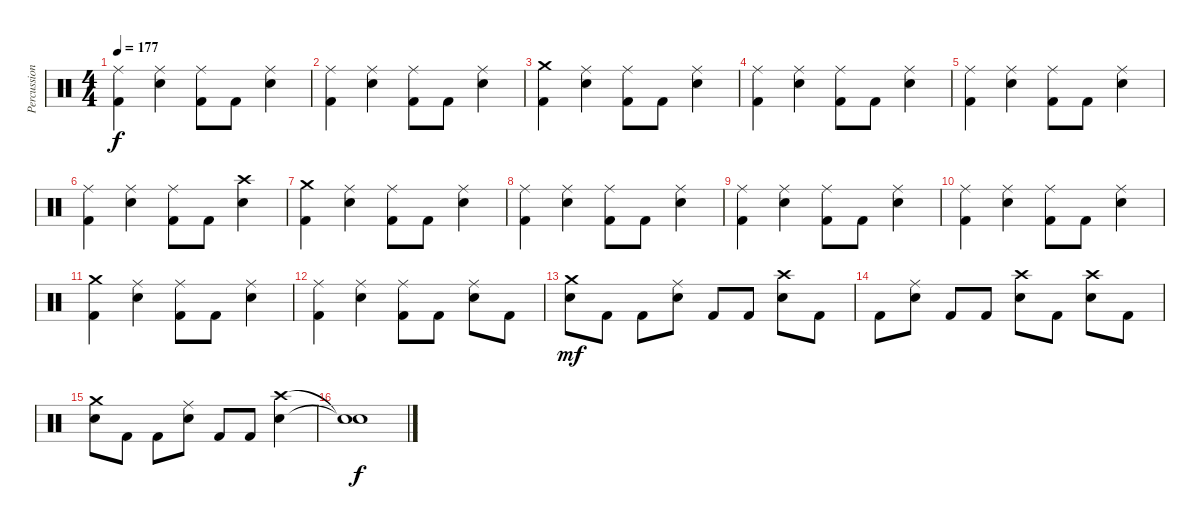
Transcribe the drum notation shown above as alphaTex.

\track ("Percussion" "Percussion") {instrument percussion}
\staff {score}
\articulation defaults
\ts (4 4)
\tempo 177
\clef neutral
\ks c
("Ride (middle)" "Kick (hit) 2").4{dy f} ("Ride (middle)" "Electric Snare (hit)").4 ("Ride (middle)" "Kick (hit) 2").8 "Kick (hit) 2".8 ("Ride (middle)" "Electric Snare (hit)").4 |
("Ride (middle)" "Kick (hit) 2").4 ("Ride (middle)" "Electric Snare (hit)").4 ("Ride (middle)" "Kick (hit) 2").8 "Kick (hit) 2".8 ("Ride (middle)" "Electric Snare (hit)").4 |
("Crash medium (hit)" "Kick (hit) 2").4 ("Ride (middle)" "Electric Snare (hit)").4 ("Ride (middle)" "Kick (hit) 2").8 "Kick (hit) 2".8 ("Ride (middle)" "Electric Snare (hit)").4 |
("Ride (middle)" "Kick (hit) 2").4 ("Ride (middle)" "Electric Snare (hit)").4 ("Ride (middle)" "Kick (hit) 2").8 "Kick (hit) 2".8 ("Ride (middle)" "Electric Snare (hit)").4 |
("Ride (middle)" "Kick (hit) 2").4 ("Ride (middle)" "Electric Snare (hit)").4 ("Ride (middle)" "Kick (hit) 2").8 "Kick (hit) 2".8 ("Ride (middle)" "Electric Snare (hit)").4 |
("Ride (middle)" "Kick (hit) 2").4 ("Ride (middle)" "Electric Snare (hit)").4 ("Ride (middle)" "Kick (hit) 2").8 "Kick (hit) 2".8 ("Crash high (hit)" "Electric Snare (hit)").4 |
("Crash medium (hit)" "Kick (hit) 2").4 ("Ride (middle)" "Electric Snare (hit)").4 ("Ride (middle)" "Kick (hit) 2").8 "Kick (hit) 2".8 ("Ride (middle)" "Electric Snare (hit)").4 |
("Ride (middle)" "Kick (hit) 2").4 ("Ride (middle)" "Electric Snare (hit)").4 ("Ride (middle)" "Kick (hit) 2").8 "Kick (hit) 2".8 ("Ride (middle)" "Electric Snare (hit)").4 |
("Ride (middle)" "Kick (hit) 2").4 ("Ride (middle)" "Electric Snare (hit)").4 ("Ride (middle)" "Kick (hit) 2").8 "Kick (hit) 2".8 ("Ride (middle)" "Electric Snare (hit)").4 |
("Ride (middle)" "Kick (hit) 2").4 ("Ride (middle)" "Electric Snare (hit)").4 ("Ride (middle)" "Kick (hit) 2").8 "Kick (hit) 2".8 ("Ride (middle)" "Electric Snare (hit)").4 |
("Crash medium (hit)" "Kick (hit) 2").4 ("Ride (middle)" "Electric Snare (hit)").4 ("Ride (middle)" "Kick (hit) 2").8 "Kick (hit) 2".8 ("Ride (middle)" "Electric Snare (hit)").4 |
("Ride (middle)" "Kick (hit) 2").4 ("Ride (middle)" "Electric Snare (hit)").4 ("Ride (middle)" "Kick (hit) 2").8 "Kick (hit) 2".8 ("Ride (middle)" "Electric Snare (hit)").8 "Kick (hit) 2".8 |
("Crash medium (hit)" "Electric Snare (hit)").8{dy mf} "Kick (hit) 2".8 "Kick (hit) 2".8 ("Ride (middle)" "Electric Snare (hit)").8 "Kick (hit) 2".8 "Kick (hit) 2".8 ("Crash high (hit)" "Electric Snare (hit)").8 "Kick (hit) 2".8 |
"Kick (hit) 2".8 ("Ride (middle)" "Electric Snare (hit)").8 "Kick (hit) 2".8 "Kick (hit) 2".8 ("Crash high (hit)" "Electric Snare (hit)").8 "Kick (hit) 2".8 ("Crash high (hit)" "Electric Snare (hit)").8 "Kick (hit) 2".8 |
("Crash medium (hit)" "Electric Snare (hit)").8 "Kick (hit) 2".8 "Kick (hit) 2".8 ("Ride (middle)" "Electric Snare (hit)").8 "Kick (hit) 2".8 "Kick (hit) 2".8 ("Crash high (hit)" "Electric Snare (hit)").4 |
("Snare (hit)"{t} "Snare (hit)"{t}).1{dy f}
